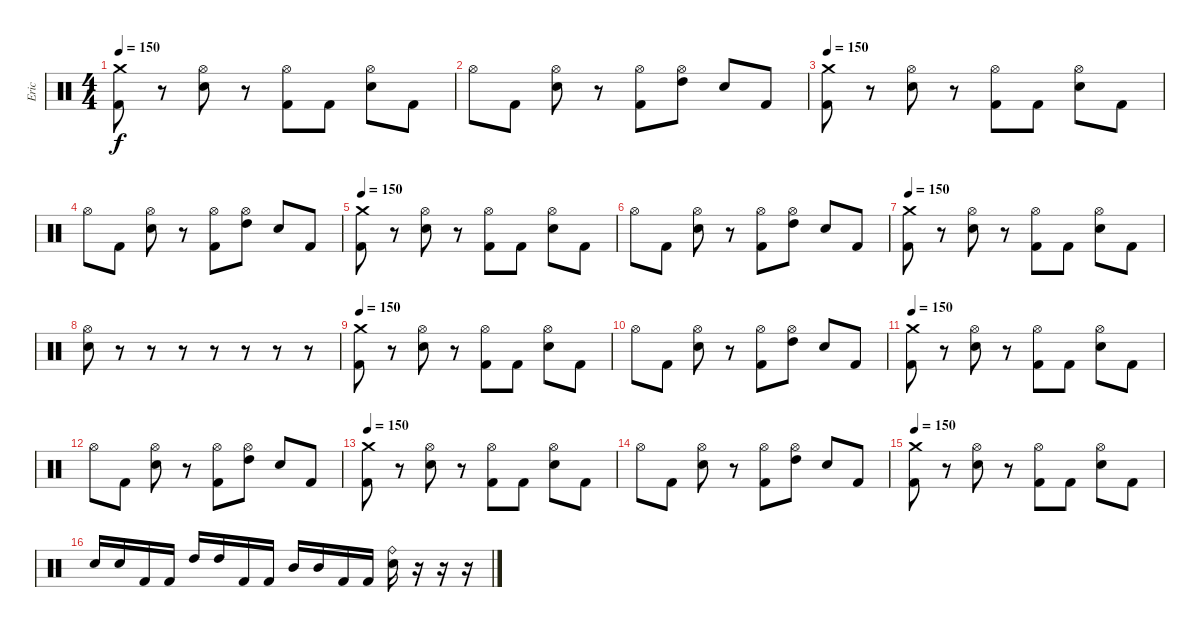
\track ("Eric" "Eric") {instrument percussion}
\staff {score}
\articulation defaults
\ts (4 4)
\tempo 150
\clef neutral
\ks c
("Crash medium (hit)" "Kick (hit) 2").8{dy f} r.8 ("Hi-Hat (open)" "Electric Snare (hit)").8 r.8 ("Hi-Hat (open)" "Kick (hit) 2").8 "Kick (hit) 2".8 ("Hi-Hat (open)" "Electric Snare (hit)").8 "Kick (hit) 2".8 |
"Hi-Hat (open)".8 "Kick (hit) 2".8 ("Hi-Hat (open)" "Electric Snare (hit)").8 r.8 ("Hi-Hat (open)" "Kick (hit) 2").8 ("Hi-Hat (open)" "High Tom (hit)").8 "Electric Snare (hit)".8 "Kick (hit) 2".8 |
\tempo 150
("Crash medium (hit)" "Kick (hit) 2").8 r.8 ("Hi-Hat (open)" "Electric Snare (hit)").8 r.8 ("Hi-Hat (open)" "Kick (hit) 2").8 "Kick (hit) 2".8 ("Hi-Hat (open)" "Electric Snare (hit)").8 "Kick (hit) 2".8 |
"Hi-Hat (open)".8 "Kick (hit) 2".8 ("Hi-Hat (open)" "Electric Snare (hit)").8 r.8 ("Hi-Hat (open)" "Kick (hit) 2").8 ("Hi-Hat (open)" "High Tom (hit)").8 "Electric Snare (hit)".8 "Kick (hit) 2".8 |
\tempo 150
("Crash medium (hit)" "Kick (hit) 2").8 r.8 ("Hi-Hat (open)" "Electric Snare (hit)").8 r.8 ("Hi-Hat (open)" "Kick (hit) 2").8 "Kick (hit) 2".8 ("Hi-Hat (open)" "Electric Snare (hit)").8 "Kick (hit) 2".8 |
"Hi-Hat (open)".8 "Kick (hit) 2".8 ("Hi-Hat (open)" "Electric Snare (hit)").8 r.8 ("Hi-Hat (open)" "Kick (hit) 2").8 ("Hi-Hat (open)" "High Tom (hit)").8 "Electric Snare (hit)".8 "Kick (hit) 2".8 |
\tempo 150
("Crash medium (hit)" "Kick (hit) 2").8 r.8 ("Hi-Hat (open)" "Electric Snare (hit)").8 r.8 ("Hi-Hat (open)" "Kick (hit) 2").8 "Kick (hit) 2".8 ("Hi-Hat (open)" "Electric Snare (hit)").8 "Kick (hit) 2".8 |
("Hi-Hat (open)" "Electric Snare (hit)").8 r.8 r.8 r.8 r.8 r.8 r.8 r.8 |
\tempo 150
("Crash medium (hit)" "Kick (hit) 2").8 r.8 ("Hi-Hat (open)" "Electric Snare (hit)").8 r.8 ("Hi-Hat (open)" "Kick (hit) 2").8 "Kick (hit) 2".8 ("Hi-Hat (open)" "Electric Snare (hit)").8 "Kick (hit) 2".8 |
"Hi-Hat (open)".8 "Kick (hit) 2".8 ("Hi-Hat (open)" "Electric Snare (hit)").8 r.8 ("Hi-Hat (open)" "Kick (hit) 2").8 ("Hi-Hat (open)" "High Tom (hit)").8 "Electric Snare (hit)".8 "Kick (hit) 2".8 |
\tempo 150
("Crash medium (hit)" "Kick (hit) 2").8 r.8 ("Hi-Hat (open)" "Electric Snare (hit)").8 r.8 ("Hi-Hat (open)" "Kick (hit) 2").8 "Kick (hit) 2".8 ("Hi-Hat (open)" "Electric Snare (hit)").8 "Kick (hit) 2".8 |
"Hi-Hat (open)".8 "Kick (hit) 2".8 ("Hi-Hat (open)" "Electric Snare (hit)").8 r.8 ("Hi-Hat (open)" "Kick (hit) 2").8 ("Hi-Hat (open)" "High Tom (hit)").8 "Electric Snare (hit)".8 "Kick (hit) 2".8 |
\tempo 150
("Crash medium (hit)" "Kick (hit) 2").8 r.8 ("Hi-Hat (open)" "Electric Snare (hit)").8 r.8 ("Hi-Hat (open)" "Kick (hit) 2").8 "Kick (hit) 2".8 ("Hi-Hat (open)" "Electric Snare (hit)").8 "Kick (hit) 2".8 |
"Hi-Hat (open)".8 "Kick (hit) 2".8 ("Hi-Hat (open)" "Electric Snare (hit)").8 r.8 ("Hi-Hat (open)" "Kick (hit) 2").8 ("Hi-Hat (open)" "High Tom (hit)").8 "Electric Snare (hit)".8 "Kick (hit) 2".8 |
\tempo 150
("Crash medium (hit)" "Kick (hit) 2").8 r.8 ("Hi-Hat (open)" "Electric Snare (hit)").8 r.8 ("Hi-Hat (open)" "Kick (hit) 2").8 "Kick (hit) 2".8 ("Hi-Hat (open)" "Electric Snare (hit)").8 "Kick (hit) 2".8 |
"Electric Snare (hit)".16 "Electric Snare (hit)".16 "Kick (hit) 2".16 "Kick (hit) 2".16 "High Tom (hit)".16 "High Tom (hit)".16 "Kick (hit) 2".16 "Kick (hit) 2".16 "Mid Tom (hit)".16 "Mid Tom (hit)".16 "Kick (hit) 2".16 "Kick (hit) 2".16 ("Ride (bell)" "Electric Snare (hit)").16 r.16 r.16 r.16
